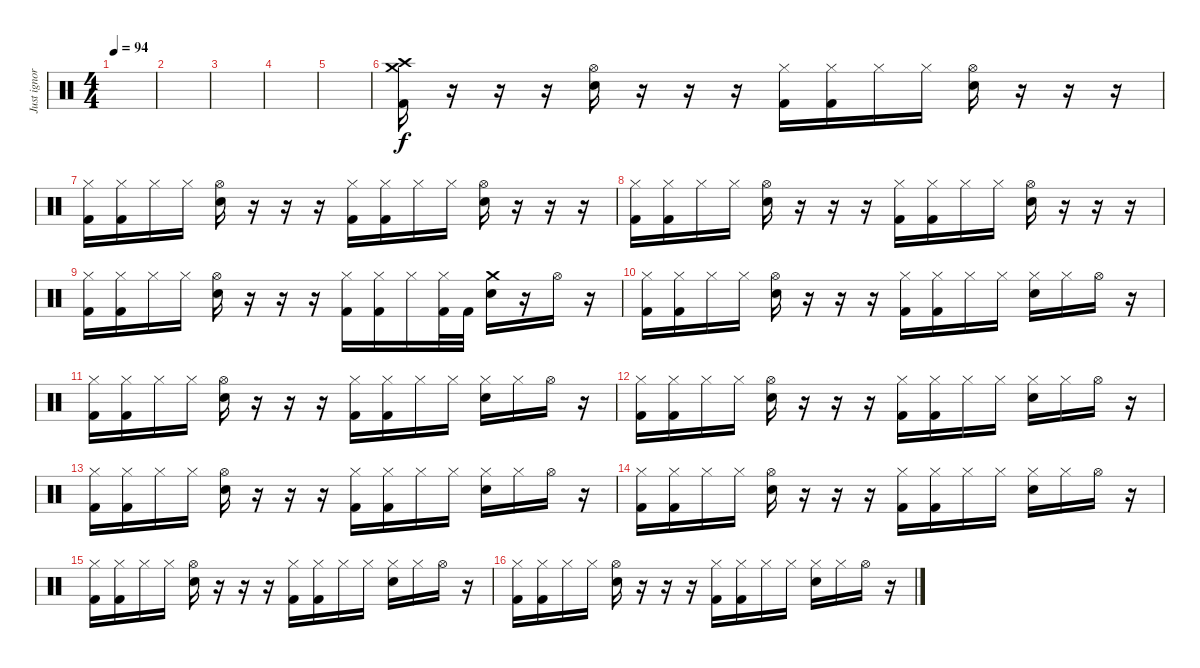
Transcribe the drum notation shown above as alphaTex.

\track ("Just ignore this track" "Just ignor") {instrument percussion}
\staff {score}
\articulation defaults
\ts (4 4)
\tempo 94
\clef neutral
\ks c
|
|
|
|
|
("Crash medium (hit)" "Crash high (hit)" "Kick (hit) 2").16 r.16 r.16 r.16 ("Hi-Hat (open)" "Electric Snare (hit)").16 r.16 r.16 r.16 ("Hi-Hat (closed)" "Kick (hit) 2").16 ("Hi-Hat (closed)" "Kick (hit) 2").16 "Hi-Hat (closed)".16 "Hi-Hat (closed)".16 ("Hi-Hat (open)" "Electric Snare (hit)").16 r.16 r.16 r.16 |
("Hi-Hat (closed)" "Kick (hit) 2").16 ("Hi-Hat (closed)" "Kick (hit) 2").16 "Hi-Hat (closed)".16 "Hi-Hat (closed)".16 ("Hi-Hat (open)" "Electric Snare (hit)").16 r.16 r.16 r.16 ("Hi-Hat (closed)" "Kick (hit) 2").16 ("Hi-Hat (closed)" "Kick (hit) 2").16 "Hi-Hat (closed)".16 "Hi-Hat (closed)".16 ("Hi-Hat (open)" "Electric Snare (hit)").16 r.16 r.16 r.16 |
("Hi-Hat (closed)" "Kick (hit) 2").16 ("Hi-Hat (closed)" "Kick (hit) 2").16 "Hi-Hat (closed)".16 "Hi-Hat (closed)".16 ("Hi-Hat (open)" "Electric Snare (hit)").16 r.16 r.16 r.16 ("Hi-Hat (closed)" "Kick (hit) 2").16 ("Hi-Hat (closed)" "Kick (hit) 2").16 "Hi-Hat (closed)".16 "Hi-Hat (closed)".16 ("Hi-Hat (open)" "Electric Snare (hit)").16 r.16 r.16 r.16 |
("Hi-Hat (closed)" "Kick (hit) 2").16 ("Hi-Hat (closed)" "Kick (hit) 2").16 "Hi-Hat (closed)".16 "Hi-Hat (closed)".16 ("Hi-Hat (open)" "Electric Snare (hit)").16 r.16 r.16 r.16 ("Hi-Hat (closed)" "Kick (hit) 2").16 ("Hi-Hat (closed)" "Kick (hit) 2").16 "Hi-Hat (closed)".16 ("Hi-Hat (closed)" "Kick (hit) 2").32 "Kick (hit) 2".32 ("Crash medium (hit)" "Electric Snare (hit)").16 r.16 "Hi-Hat (open)".16 r.16 |
("Hi-Hat (closed)" "Kick (hit) 2").16 ("Hi-Hat (closed)" "Kick (hit) 2").16 "Hi-Hat (closed)".16 "Hi-Hat (closed)".16 ("Hi-Hat (open)" "Electric Snare (hit)").16 r.16 r.16 r.16 ("Hi-Hat (closed)" "Kick (hit) 2").16 ("Hi-Hat (closed)" "Kick (hit) 2").16 "Hi-Hat (closed)".16 "Hi-Hat (closed)".16 ("Hi-Hat (closed)" "Electric Snare (hit)").16 "Hi-Hat (closed)".16 "Hi-Hat (open)".16 r.16 |
("Hi-Hat (closed)" "Kick (hit) 2").16 ("Hi-Hat (closed)" "Kick (hit) 2").16 "Hi-Hat (closed)".16 "Hi-Hat (closed)".16 ("Hi-Hat (open)" "Electric Snare (hit)").16 r.16 r.16 r.16 ("Hi-Hat (closed)" "Kick (hit) 2").16 ("Hi-Hat (closed)" "Kick (hit) 2").16 "Hi-Hat (closed)".16 "Hi-Hat (closed)".16 ("Hi-Hat (closed)" "Electric Snare (hit)").16 "Hi-Hat (closed)".16 "Hi-Hat (open)".16 r.16 |
("Hi-Hat (closed)" "Kick (hit) 2").16 ("Hi-Hat (closed)" "Kick (hit) 2").16 "Hi-Hat (closed)".16 "Hi-Hat (closed)".16 ("Hi-Hat (open)" "Electric Snare (hit)").16 r.16 r.16 r.16 ("Hi-Hat (closed)" "Kick (hit) 2").16 ("Hi-Hat (closed)" "Kick (hit) 2").16 "Hi-Hat (closed)".16 "Hi-Hat (closed)".16 ("Hi-Hat (closed)" "Electric Snare (hit)").16 "Hi-Hat (closed)".16 "Hi-Hat (open)".16 r.16 |
("Hi-Hat (closed)" "Kick (hit) 2").16 ("Hi-Hat (closed)" "Kick (hit) 2").16 "Hi-Hat (closed)".16 "Hi-Hat (closed)".16 ("Hi-Hat (open)" "Electric Snare (hit)").16 r.16 r.16 r.16 ("Hi-Hat (closed)" "Kick (hit) 2").16 ("Hi-Hat (closed)" "Kick (hit) 2").16 "Hi-Hat (closed)".16 "Hi-Hat (closed)".16 ("Hi-Hat (closed)" "Electric Snare (hit)").16 "Hi-Hat (closed)".16 "Hi-Hat (open)".16 r.16 |
("Hi-Hat (closed)" "Kick (hit) 2").16 ("Hi-Hat (closed)" "Kick (hit) 2").16 "Hi-Hat (closed)".16 "Hi-Hat (closed)".16 ("Hi-Hat (open)" "Electric Snare (hit)").16 r.16 r.16 r.16 ("Hi-Hat (closed)" "Kick (hit) 2").16 ("Hi-Hat (closed)" "Kick (hit) 2").16 "Hi-Hat (closed)".16 "Hi-Hat (closed)".16 ("Hi-Hat (closed)" "Electric Snare (hit)").16 "Hi-Hat (closed)".16 "Hi-Hat (open)".16 r.16 |
("Hi-Hat (closed)" "Kick (hit) 2").16 ("Hi-Hat (closed)" "Kick (hit) 2").16 "Hi-Hat (closed)".16 "Hi-Hat (closed)".16 ("Hi-Hat (open)" "Electric Snare (hit)").16 r.16 r.16 r.16 ("Hi-Hat (closed)" "Kick (hit) 2").16 ("Hi-Hat (closed)" "Kick (hit) 2").16 "Hi-Hat (closed)".16 "Hi-Hat (closed)".16 ("Hi-Hat (closed)" "Electric Snare (hit)").16 "Hi-Hat (closed)".16 "Hi-Hat (open)".16 r.16 |
("Hi-Hat (closed)" "Kick (hit) 2").16 ("Hi-Hat (closed)" "Kick (hit) 2").16 "Hi-Hat (closed)".16 "Hi-Hat (closed)".16 ("Hi-Hat (open)" "Electric Snare (hit)").16 r.16 r.16 r.16 ("Hi-Hat (closed)" "Kick (hit) 2").16 ("Hi-Hat (closed)" "Kick (hit) 2").16 "Hi-Hat (closed)".16 "Hi-Hat (closed)".16 ("Hi-Hat (closed)" "Electric Snare (hit)").16 "Hi-Hat (closed)".16 "Hi-Hat (open)".16 r.16
